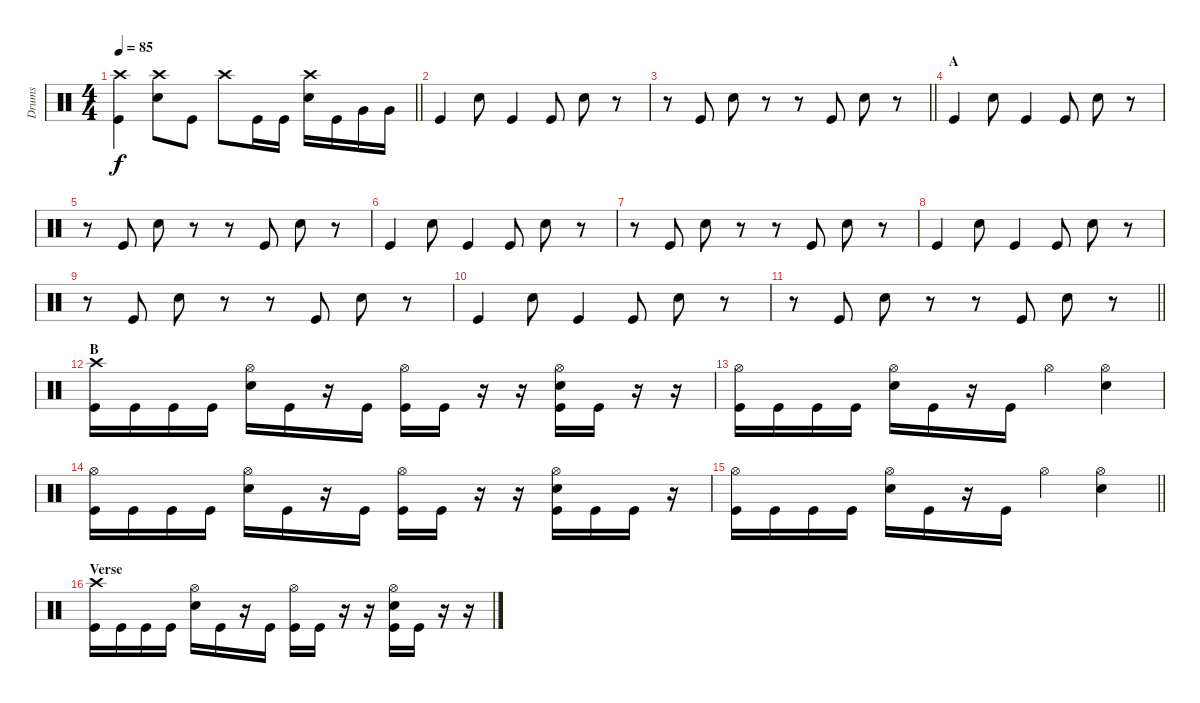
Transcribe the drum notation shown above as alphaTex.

\track ("Drums" "Drums") {instrument percussion}
\staff {score}
\articulation defaults
\ts (4 4)
\tempo 85
\clef neutral
\barLineRight lightlight
\ks c
("Crash high (hit)" "Kick (hit)").4{dy f} ("Snare (hit) 2" "Crash high (hit)").8 "Kick (hit)".8 "Crash high (hit)".8 "Kick (hit)".16 "Kick (hit)".16 ("Crash high (hit)" "Snare (hit) 2").16 "Kick (hit)".16 "Very Low Tom (hit)".16 "Very Low Tom (hit)".16 |
"Kick (hit)".4 "Snare (hit) 2".8 "Kick (hit)".4 "Kick (hit)".8 "Snare (hit) 2".8 r.8 |
\barLineRight lightlight
r.8 "Kick (hit)".8 "Snare (hit) 2".8 r.8 r.8 "Kick (hit)".8 "Snare (hit) 2".8 r.8 |
\section ("" "A")
"Kick (hit)".4 "Snare (hit) 2".8 "Kick (hit)".4 "Kick (hit)".8 "Snare (hit) 2".8 r.8 |
r.8 "Kick (hit)".8 "Snare (hit) 2".8 r.8 r.8 "Kick (hit)".8 "Snare (hit) 2".8 r.8 |
"Kick (hit)".4 "Snare (hit) 2".8 "Kick (hit)".4 "Kick (hit)".8 "Snare (hit) 2".8 r.8 |
r.8 "Kick (hit)".8 "Snare (hit) 2".8 r.8 r.8 "Kick (hit)".8 "Snare (hit) 2".8 r.8 |
"Kick (hit)".4 "Snare (hit) 2".8 "Kick (hit)".4 "Kick (hit)".8 "Snare (hit) 2".8 r.8 |
r.8 "Kick (hit)".8 "Snare (hit) 2".8 r.8 r.8 "Kick (hit)".8 "Snare (hit) 2".8 r.8 |
"Kick (hit)".4 "Snare (hit) 2".8 "Kick (hit)".4 "Kick (hit)".8 "Snare (hit) 2".8 r.8 |
\barLineRight lightlight
r.8 "Kick (hit)".8 "Snare (hit) 2".8 r.8 r.8 "Kick (hit)".8 "Snare (hit) 2".8 r.8 |
\section ("" "B")
("Crash high (hit)" "Kick (hit)").16 "Kick (hit)".16 "Kick (hit)".16 "Kick (hit)".16 ("Hi-Hat (open)" "Snare (hit) 2").16 "Kick (hit)".16 r.16 "Kick (hit)".16 ("Hi-Hat (open)" "Kick (hit)").16 "Kick (hit)".16 r.16 r.16 ("Snare (hit) 2" "Hi-Hat (open)" "Kick (hit)").16 "Kick (hit)".16 r.16 r.16 |
("Hi-Hat (open)" "Kick (hit)").16 "Kick (hit)".16 "Kick (hit)".16 "Kick (hit)".16 ("Hi-Hat (open)" "Snare (hit) 2").16 "Kick (hit)".16 r.16 "Kick (hit)".16 "Hi-Hat (open)".4 ("Hi-Hat (open)" "Snare (hit) 2").4 |
("Hi-Hat (open)" "Kick (hit)").16 "Kick (hit)".16 "Kick (hit)".16 "Kick (hit)".16 ("Hi-Hat (open)" "Snare (hit) 2").16 "Kick (hit)".16 r.16 "Kick (hit)".16 ("Hi-Hat (open)" "Kick (hit)").16 "Kick (hit)".16 r.16 r.16 ("Snare (hit) 2" "Hi-Hat (open)" "Kick (hit)").16 "Kick (hit)".16 "Kick (hit)".16 r.16 |
\barLineRight lightlight
("Hi-Hat (open)" "Kick (hit)").16 "Kick (hit)".16 "Kick (hit)".16 "Kick (hit)".16 ("Hi-Hat (open)" "Snare (hit) 2").16 "Kick (hit)".16 r.16 "Kick (hit)".16 "Hi-Hat (open)".4 ("Hi-Hat (open)" "Snare (hit) 2").4 |
\section ("" "Verse")
("Crash high (hit)" "Kick (hit)").16 "Kick (hit)".16 "Kick (hit)".16 "Kick (hit)".16 ("Hi-Hat (open)" "Snare (hit) 2").16 "Kick (hit)".16 r.16 "Kick (hit)".16 ("Hi-Hat (open)" "Kick (hit)").16 "Kick (hit)".16 r.16 r.16 ("Snare (hit) 2" "Hi-Hat (open)" "Kick (hit)").16 "Kick (hit)".16 r.16 r.16
